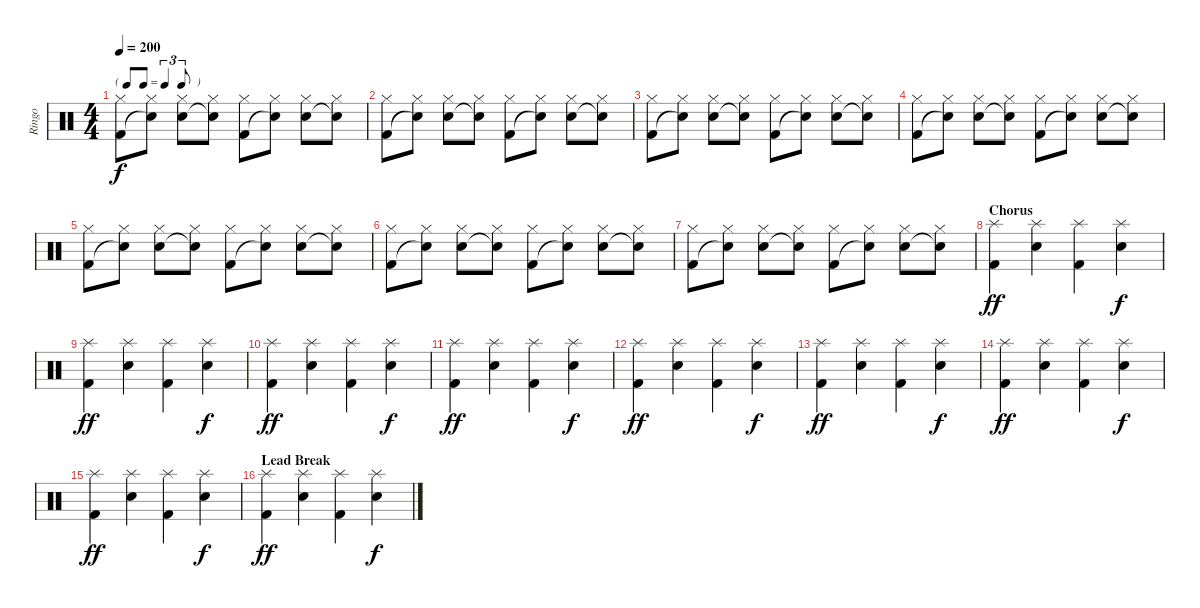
\track ("Ringo" "Ringo") {instrument percussion}
\staff {score}
\articulation defaults
\ts (4 4)
\tf triplet8th
\tempo 200
\clef neutral
\ks c
("Hi-Hat (closed)" "Kick (hit) 2").8{dy f} ("Hi-Hat (closed)" "Snare (hit)"{t}).8 ("Hi-Hat (closed)" "Electric Snare (hit)").8 ("Hi-Hat (closed)" "Snare (hit)"{t}).8 ("Hi-Hat (closed)" "Kick (hit) 2").8 ("Hi-Hat (closed)" "Snare (hit)"{t}).8 ("Hi-Hat (closed)" "Electric Snare (hit)").8 ("Hi-Hat (closed)" "Snare (hit)"{t}).8 |
("Hi-Hat (closed)" "Kick (hit) 2").8 ("Hi-Hat (closed)" "Snare (hit)"{t}).8 ("Hi-Hat (closed)" "Electric Snare (hit)").8 ("Hi-Hat (closed)" "Snare (hit)"{t}).8 ("Hi-Hat (closed)" "Kick (hit) 2").8 ("Hi-Hat (closed)" "Snare (hit)"{t}).8 ("Hi-Hat (closed)" "Electric Snare (hit)").8 ("Hi-Hat (closed)" "Snare (hit)"{t}).8 |
("Hi-Hat (closed)" "Kick (hit) 2").8 ("Hi-Hat (closed)" "Snare (hit)"{t}).8 ("Hi-Hat (closed)" "Electric Snare (hit)").8 ("Hi-Hat (closed)" "Snare (hit)"{t}).8 ("Hi-Hat (closed)" "Kick (hit) 2").8 ("Hi-Hat (closed)" "Snare (hit)"{t}).8 ("Hi-Hat (closed)" "Electric Snare (hit)").8 ("Hi-Hat (closed)" "Snare (hit)"{t}).8 |
("Hi-Hat (closed)" "Kick (hit) 2").8 ("Hi-Hat (closed)" "Snare (hit)"{t}).8 ("Hi-Hat (closed)" "Electric Snare (hit)").8 ("Hi-Hat (closed)" "Snare (hit)"{t}).8 ("Hi-Hat (closed)" "Kick (hit) 2").8 ("Hi-Hat (closed)" "Snare (hit)"{t}).8 ("Hi-Hat (closed)" "Electric Snare (hit)").8 ("Hi-Hat (closed)" "Snare (hit)"{t}).8 |
("Hi-Hat (closed)" "Kick (hit) 2").8 ("Hi-Hat (closed)" "Snare (hit)"{t}).8 ("Hi-Hat (closed)" "Electric Snare (hit)").8 ("Hi-Hat (closed)" "Snare (hit)"{t}).8 ("Hi-Hat (closed)" "Kick (hit) 2").8 ("Hi-Hat (closed)" "Snare (hit)"{t}).8 ("Hi-Hat (closed)" "Electric Snare (hit)").8 ("Hi-Hat (closed)" "Snare (hit)"{t}).8 |
("Hi-Hat (closed)" "Kick (hit) 2").8 ("Hi-Hat (closed)" "Snare (hit)"{t}).8 ("Hi-Hat (closed)" "Electric Snare (hit)").8 ("Hi-Hat (closed)" "Snare (hit)"{t}).8 ("Hi-Hat (closed)" "Kick (hit) 2").8 ("Hi-Hat (closed)" "Snare (hit)"{t}).8 ("Hi-Hat (closed)" "Electric Snare (hit)").8 ("Hi-Hat (closed)" "Snare (hit)"{t}).8 |
("Hi-Hat (closed)" "Kick (hit) 2").8 ("Hi-Hat (closed)" "Snare (hit)"{t}).8 ("Hi-Hat (closed)" "Electric Snare (hit)").8 ("Hi-Hat (closed)" "Snare (hit)"{t}).8 ("Hi-Hat (closed)" "Kick (hit) 2").8 ("Hi-Hat (closed)" "Snare (hit)"{t}).8 ("Hi-Hat (closed)" "Electric Snare (hit)").8 ("Hi-Hat (closed)" "Snare (hit)"{t}).8 |
\section ("" "Chorus")
("Splash (hit)" "Kick (hit) 2").4{dy ff} ("Splash (hit)" "Electric Snare (hit)").4 ("Splash (hit)" "Kick (hit) 2").4 ("Splash (hit)" "Electric Snare (hit)").4{dy f} |
("Splash (hit)" "Kick (hit) 2").4{dy ff} ("Splash (hit)" "Electric Snare (hit)").4 ("Splash (hit)" "Kick (hit) 2").4 ("Splash (hit)" "Electric Snare (hit)").4{dy f} |
("Splash (hit)" "Kick (hit) 2").4{dy ff} ("Splash (hit)" "Electric Snare (hit)").4 ("Splash (hit)" "Kick (hit) 2").4 ("Splash (hit)" "Electric Snare (hit)").4{dy f} |
("Splash (hit)" "Kick (hit) 2").4{dy ff} ("Splash (hit)" "Electric Snare (hit)").4 ("Splash (hit)" "Kick (hit) 2").4 ("Splash (hit)" "Electric Snare (hit)").4{dy f} |
("Splash (hit)" "Kick (hit) 2").4{dy ff} ("Splash (hit)" "Electric Snare (hit)").4 ("Splash (hit)" "Kick (hit) 2").4 ("Splash (hit)" "Electric Snare (hit)").4{dy f} |
("Splash (hit)" "Kick (hit) 2").4{dy ff} ("Splash (hit)" "Electric Snare (hit)").4 ("Splash (hit)" "Kick (hit) 2").4 ("Splash (hit)" "Electric Snare (hit)").4{dy f} |
("Splash (hit)" "Kick (hit) 2").4{dy ff} ("Splash (hit)" "Electric Snare (hit)").4 ("Splash (hit)" "Kick (hit) 2").4 ("Splash (hit)" "Electric Snare (hit)").4{dy f} |
("Splash (hit)" "Kick (hit) 2").4{dy ff} ("Splash (hit)" "Electric Snare (hit)").4 ("Splash (hit)" "Kick (hit) 2").4 ("Splash (hit)" "Electric Snare (hit)").4{dy f} |
\section ("" "Lead Break")
("Splash (hit)" "Kick (hit) 2").4{dy ff} ("Splash (hit)" "Electric Snare (hit)").4 ("Splash (hit)" "Kick (hit) 2").4 ("Splash (hit)" "Electric Snare (hit)").4{dy f}
